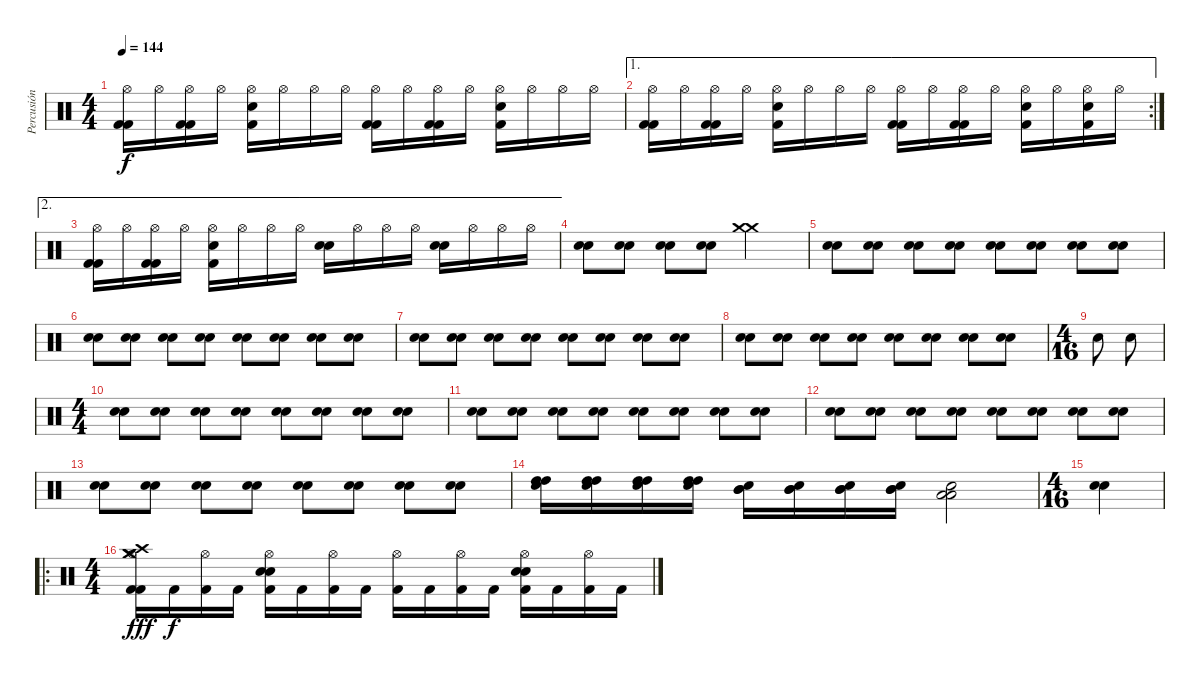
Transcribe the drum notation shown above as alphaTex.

\track ("Percusión" "Percusión") {instrument percussion}
\staff {score}
\articulation defaults
\ts (4 4)
\tempo 144
\clef neutral
\ks c
("Hi-Hat (open)" "Kick (hit) 2" "Kick (hit) 2").16{dy f} "Hi-Hat (open)".16 ("Hi-Hat (open)" "Kick (hit) 2" "Kick (hit) 2").16 "Hi-Hat (open)".16 ("Hi-Hat (open)" "Kick (hit) 2" "Electric Snare (hit)").16 "Hi-Hat (open)".16 "Hi-Hat (open)".16 "Hi-Hat (open)".16 ("Hi-Hat (open)" "Kick (hit) 2" "Kick (hit) 2").16 "Hi-Hat (open)".16 ("Hi-Hat (open)" "Kick (hit) 2" "Kick (hit) 2").16 "Hi-Hat (open)".16 ("Hi-Hat (open)" "Kick (hit) 2" "Electric Snare (hit)").16 "Hi-Hat (open)".16 "Hi-Hat (open)".16 "Hi-Hat (open)".16 |
\ae 1
\rc 2
("Hi-Hat (open)" "Kick (hit) 2" "Kick (hit) 2").16 "Hi-Hat (open)".16 ("Hi-Hat (open)" "Kick (hit) 2" "Kick (hit) 2").16 "Hi-Hat (open)".16 ("Hi-Hat (open)" "Kick (hit) 2" "Electric Snare (hit)").16 "Hi-Hat (open)".16 "Hi-Hat (open)".16 "Hi-Hat (open)".16 ("Hi-Hat (open)" "Kick (hit) 2" "Kick (hit) 2").16 "Hi-Hat (open)".16 ("Hi-Hat (open)" "Kick (hit) 2" "Kick (hit) 2").16 "Hi-Hat (open)".16 ("Hi-Hat (open)" "Kick (hit) 2" "Electric Snare (hit)").16 "Hi-Hat (open)".16 ("Hi-Hat (open)" "Kick (hit) 2" "Electric Snare (hit)").16 "Hi-Hat (open)".16 |
\ae 2
("Hi-Hat (open)" "Kick (hit) 2" "Kick (hit) 2").16 "Hi-Hat (open)".16 ("Hi-Hat (open)" "Kick (hit) 2" "Kick (hit) 2").16 "Hi-Hat (open)".16 ("Hi-Hat (open)" "Kick (hit) 2" "Electric Snare (hit)").16 "Hi-Hat (open)".16 "Hi-Hat (open)".16 "Hi-Hat (open)".16 ("Electric Snare (hit)" "Electric Snare (hit)").16 "Hi-Hat (open)".16 "Hi-Hat (open)".16 "Hi-Hat (open)".16 ("Electric Snare (hit)" "Electric Snare (hit)").16 "Hi-Hat (open)".16 "Hi-Hat (open)".16 "Hi-Hat (open)".16 |
("Electric Snare (hit)" "Electric Snare (hit)").8 ("Electric Snare (hit)" "Electric Snare (hit)").8 ("Electric Snare (hit)" "Electric Snare (hit)").8 ("Electric Snare (hit)" "Electric Snare (hit)").8 ("Crash medium (hit)" "Crash medium (hit)").2 |
("Electric Snare (hit)" "Electric Snare (hit)").8{volume 5} ("Electric Snare (hit)" "Electric Snare (hit)").8 ("Electric Snare (hit)" "Electric Snare (hit)").8 ("Electric Snare (hit)" "Electric Snare (hit)").8 ("Electric Snare (hit)" "Electric Snare (hit)").8 ("Electric Snare (hit)" "Electric Snare (hit)").8 ("Electric Snare (hit)" "Electric Snare (hit)").8 ("Electric Snare (hit)" "Electric Snare (hit)").8 |
("Electric Snare (hit)" "Electric Snare (hit)").8 ("Electric Snare (hit)" "Electric Snare (hit)").8 ("Electric Snare (hit)" "Electric Snare (hit)").8 ("Electric Snare (hit)" "Electric Snare (hit)").8 ("Electric Snare (hit)" "Electric Snare (hit)").8{volume 6} ("Electric Snare (hit)" "Electric Snare (hit)").8 ("Electric Snare (hit)" "Electric Snare (hit)").8 ("Electric Snare (hit)" "Electric Snare (hit)").8 |
("Electric Snare (hit)" "Electric Snare (hit)").8 ("Electric Snare (hit)" "Electric Snare (hit)").8 ("Electric Snare (hit)" "Electric Snare (hit)").8 ("Electric Snare (hit)" "Electric Snare (hit)").8 ("Electric Snare (hit)" "Electric Snare (hit)").8{volume 7} ("Electric Snare (hit)" "Electric Snare (hit)").8 ("Electric Snare (hit)" "Electric Snare (hit)").8 ("Electric Snare (hit)" "Electric Snare (hit)").8 |
("Electric Snare (hit)" "Electric Snare (hit)").8 ("Electric Snare (hit)" "Electric Snare (hit)").8 ("Electric Snare (hit)" "Electric Snare (hit)").8 ("Electric Snare (hit)" "Electric Snare (hit)").8 ("Electric Snare (hit)" "Electric Snare (hit)").8{volume 8} ("Electric Snare (hit)" "Electric Snare (hit)").8 ("Electric Snare (hit)" "Electric Snare (hit)").8 ("Electric Snare (hit)" "Electric Snare (hit)").8 |
\ts (4 16)
"Electric Snare (hit)".8 "Electric Snare (hit)".8 |
\ts (4 4)
("Electric Snare (hit)" "Electric Snare (hit)").8 ("Electric Snare (hit)" "Electric Snare (hit)").8 ("Electric Snare (hit)" "Electric Snare (hit)").8 ("Electric Snare (hit)" "Electric Snare (hit)").8 ("Electric Snare (hit)" "Electric Snare (hit)").8{volume 9} ("Electric Snare (hit)" "Electric Snare (hit)").8 ("Electric Snare (hit)" "Electric Snare (hit)").8 ("Electric Snare (hit)" "Electric Snare (hit)").8 |
("Electric Snare (hit)" "Electric Snare (hit)").8 ("Electric Snare (hit)" "Electric Snare (hit)").8 ("Electric Snare (hit)" "Electric Snare (hit)").8 ("Electric Snare (hit)" "Electric Snare (hit)").8 ("Electric Snare (hit)" "Electric Snare (hit)").8{volume 10} ("Electric Snare (hit)" "Electric Snare (hit)").8 ("Electric Snare (hit)" "Electric Snare (hit)").8 ("Electric Snare (hit)" "Electric Snare (hit)").8 |
("Electric Snare (hit)" "Electric Snare (hit)").8 ("Electric Snare (hit)" "Electric Snare (hit)").8 ("Electric Snare (hit)" "Electric Snare (hit)").8 ("Electric Snare (hit)" "Electric Snare (hit)").8 ("Electric Snare (hit)" "Electric Snare (hit)").8{volume 11} ("Electric Snare (hit)" "Electric Snare (hit)").8 ("Electric Snare (hit)" "Electric Snare (hit)").8 ("Electric Snare (hit)" "Electric Snare (hit)").8 |
("Electric Snare (hit)" "Electric Snare (hit)").8 ("Electric Snare (hit)" "Electric Snare (hit)").8 ("Electric Snare (hit)" "Electric Snare (hit)").8 ("Electric Snare (hit)" "Electric Snare (hit)").8 ("Electric Snare (hit)" "Electric Snare (hit)").8{volume 12} ("Electric Snare (hit)" "Electric Snare (hit)").8 ("Electric Snare (hit)" "Electric Snare (hit)").8 ("Electric Snare (hit)" "Electric Snare (hit)").8 |
("High Tom (hit)" "High Tom (hit)" "Electric Snare (hit)").16{volume 13} ("High Tom (hit)" "High Tom (hit)" "Electric Snare (hit)").16 ("High Tom (hit)" "High Tom (hit)" "Electric Snare (hit)").16 ("High Tom (hit)" "High Tom (hit)" "Electric Snare (hit)").16 ("Mid Tom (hit)" "Mid Tom (hit)" "Electric Snare (hit)").16 ("Mid Tom (hit)" "Mid Tom (hit)" "Electric Snare (hit)").16 ("Mid Tom (hit)" "Mid Tom (hit)" "Electric Snare (hit)").16 ("Mid Tom (hit)" "Mid Tom (hit)" "Electric Snare (hit)").16 ("Low Tom (hit)" "Low Tom (hit)" "Electric Snare (hit)").2 |
\ts (4 16)
("Electric Snare (hit)" "Electric Snare (hit)").4 |
\ro
\ts (4 4)
("Kick (hit) 2" "Kick (hit) 2" "Hi-Hat (open)" "Crash high (hit)" "Crash medium (hit)" "Crash medium (hit)").16{dy fff} "Kick (hit) 2".16{dy f} ("Kick (hit) 2" "Hi-Hat (open)").16 "Kick (hit) 2".16 ("Kick (hit) 2" "Hi-Hat (open)" "Electric Snare (hit)" "Electric Snare (hit)").16 "Kick (hit) 2".16 ("Kick (hit) 2" "Hi-Hat (open)").16 "Kick (hit) 2".16 ("Kick (hit) 2" "Hi-Hat (open)").16 "Kick (hit) 2".16 ("Kick (hit) 2" "Hi-Hat (open)").16 "Kick (hit) 2".16 ("Kick (hit) 2" "Hi-Hat (open)" "Electric Snare (hit)" "Electric Snare (hit)").16 "Kick (hit) 2".16 ("Kick (hit) 2" "Hi-Hat (open)").16 "Kick (hit) 2".16
